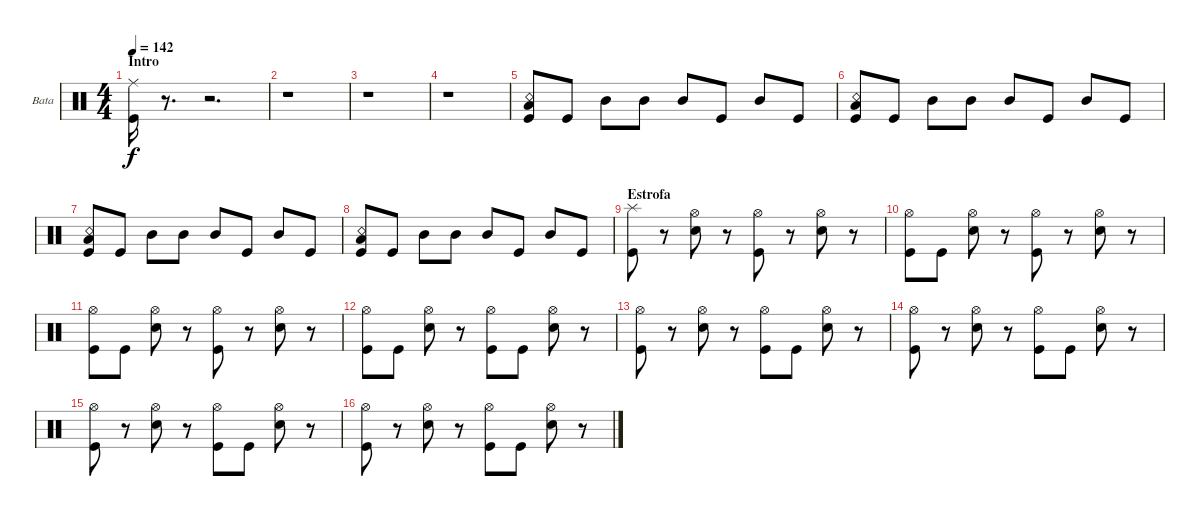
\bracketExtendMode groupsimilarinstruments
\firstSystemTrackNameOrientation horizontal
\otherSystemsTrackNameOrientation horizontal
\track ("Bateria" "Bata") {instrument percussion}
\staff {score}
\articulation defaults
\ts (4 4)
\section ("" "Intro")
\tempo 142
\clef neutral
\ks c
("Kick (hit)" "Ride (middle)").16{dy f} r.8{d} r.2{d} |
r.1 |
r.1 |
r.1 |
("Snare (rim shot)" "Kick (hit)" "Low Tom (hit)").8 "Kick (hit)".8 "Mid Tom (hit)".8 "Mid Tom (hit)".8 "Mid Tom (hit)".8 "Kick (hit)".8 "Mid Tom (hit)".8 "Kick (hit)".8 |
("Snare (rim shot)" "Kick (hit)" "Low Tom (hit)").8 "Kick (hit)".8 "Mid Tom (hit)".8 "Mid Tom (hit)".8 "Mid Tom (hit)".8 "Kick (hit)".8 "Mid Tom (hit)".8 "Kick (hit)".8 |
("Snare (rim shot)" "Kick (hit)" "Low Tom (hit)").8 "Kick (hit)".8 "Mid Tom (hit)".8 "Mid Tom (hit)".8 "Mid Tom (hit)".8 "Kick (hit)".8 "Mid Tom (hit)".8 "Kick (hit)".8 |
("Snare (rim shot)" "Kick (hit)" "Low Tom (hit)").8 "Kick (hit)".8 "Mid Tom (hit)".8 "Mid Tom (hit)".8 "Mid Tom (hit)".8 "Kick (hit)".8 "Mid Tom (hit)".8 "Kick (hit)".8 |
\section ("" "Estrofa")
("Kick (hit)" "Splash (hit)").8 r.8 ("Hi-Hat (open)" "Snare (hit) 2").8 r.8 ("Hi-Hat (open)" "Kick (hit)").8 r.8 ("Hi-Hat (open)" "Snare (hit) 2").8 r.8 |
("Hi-Hat (open)" "Kick (hit)").8 "Kick (hit)".8 ("Hi-Hat (open)" "Snare (hit) 2").8 r.8 ("Hi-Hat (open)" "Kick (hit)").8 r.8 ("Hi-Hat (open)" "Snare (hit) 2").8 r.8 |
("Hi-Hat (open)" "Kick (hit)").8 "Kick (hit)".8 ("Hi-Hat (open)" "Snare (hit) 2").8 r.8 ("Hi-Hat (open)" "Kick (hit)").8 r.8 ("Hi-Hat (open)" "Snare (hit) 2").8 r.8 |
("Hi-Hat (open)" "Kick (hit)").8 "Kick (hit)".8 ("Hi-Hat (open)" "Snare (hit) 2").8 r.8 ("Hi-Hat (open)" "Kick (hit)").8 "Kick (hit)".8 ("Hi-Hat (open)" "Snare (hit) 2").8 r.8 |
("Kick (hit)" "Hi-Hat (open)").8 r.8 ("Hi-Hat (open)" "Snare (hit) 2").8 r.8 ("Hi-Hat (open)" "Kick (hit)").8 "Kick (hit)".8 ("Hi-Hat (open)" "Snare (hit) 2").8 r.8 |
("Kick (hit)" "Hi-Hat (open)").8 r.8 ("Hi-Hat (open)" "Snare (hit) 2").8 r.8 ("Hi-Hat (open)" "Kick (hit)").8 "Kick (hit)".8 ("Hi-Hat (open)" "Snare (hit) 2").8 r.8 |
("Kick (hit)" "Hi-Hat (open)").8 r.8 ("Hi-Hat (open)" "Snare (hit) 2").8 r.8 ("Hi-Hat (open)" "Kick (hit)").8 "Kick (hit)".8 ("Hi-Hat (open)" "Snare (hit) 2").8 r.8 |
("Kick (hit)" "Hi-Hat (open)").8 r.8 ("Hi-Hat (open)" "Snare (hit) 2").8 r.8 ("Hi-Hat (open)" "Kick (hit)").8 "Kick (hit)".8 ("Hi-Hat (open)" "Snare (hit) 2").8 r.8
